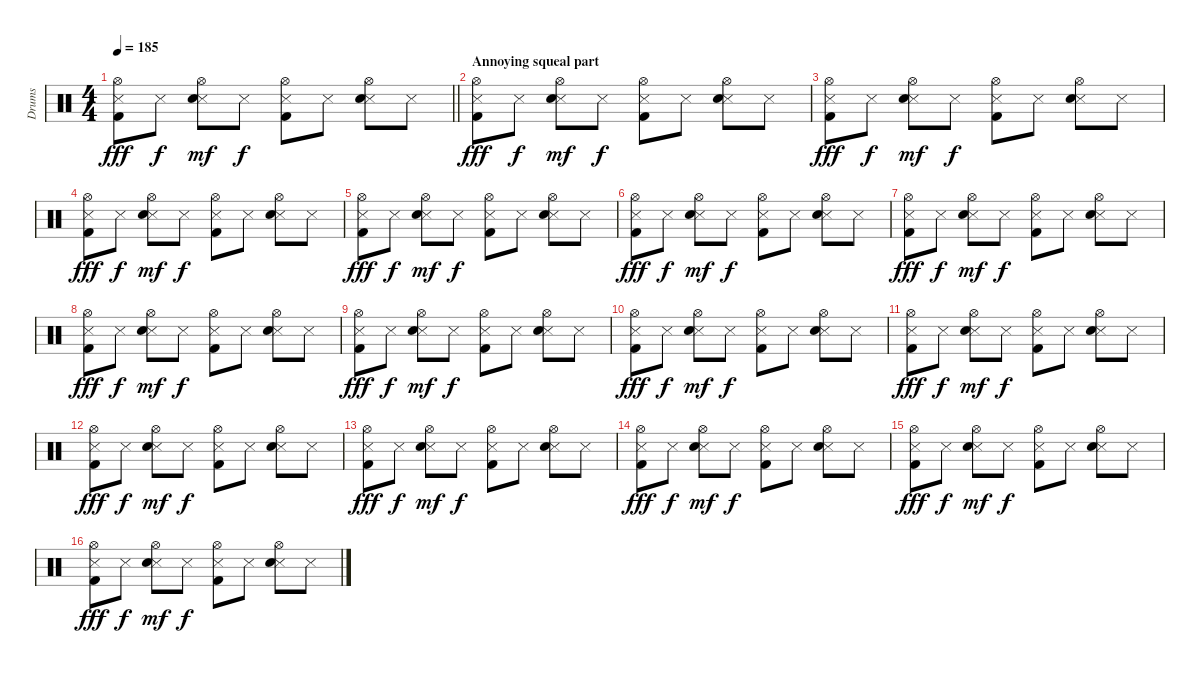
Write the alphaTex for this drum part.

\track ("Drums" "Drums") {instrument percussion}
\staff {score}
\articulation defaults
\ts (4 4)
\tempo 185
\clef neutral
\barLineRight lightlight
\ks c
("Hi-Hat (open)" "Metronome (hit)" "Kick (hit) 2").8{dy fff} "Metronome (hit)".8{dy f} ("Hi-Hat (open)" "Metronome (hit)" "Snare (hit) 2").8{dy mf} "Metronome (hit)".8{dy f} ("Hi-Hat (open)" "Metronome (hit)" "Kick (hit) 2").8 "Metronome (hit)".8 ("Hi-Hat (open)" "Metronome (hit)" "Snare (hit) 2").8 "Metronome (hit)".8 |
\section ("" "Annoying squeal part")
("Hi-Hat (open)" "Metronome (hit)" "Kick (hit) 2").8{dy fff} "Metronome (hit)".8{dy f} ("Hi-Hat (open)" "Metronome (hit)" "Snare (hit) 2").8{dy mf} "Metronome (hit)".8{dy f} ("Hi-Hat (open)" "Metronome (hit)" "Kick (hit) 2").8 "Metronome (hit)".8 ("Hi-Hat (open)" "Metronome (hit)" "Snare (hit) 2").8 "Metronome (hit)".8 |
("Hi-Hat (open)" "Metronome (hit)" "Kick (hit) 2").8{dy fff} "Metronome (hit)".8{dy f} ("Hi-Hat (open)" "Metronome (hit)" "Snare (hit) 2").8{dy mf} "Metronome (hit)".8{dy f} ("Hi-Hat (open)" "Metronome (hit)" "Kick (hit) 2").8 "Metronome (hit)".8 ("Hi-Hat (open)" "Metronome (hit)" "Snare (hit) 2").8 "Metronome (hit)".8 |
("Hi-Hat (open)" "Metronome (hit)" "Kick (hit) 2").8{dy fff} "Metronome (hit)".8{dy f} ("Hi-Hat (open)" "Metronome (hit)" "Snare (hit) 2").8{dy mf} "Metronome (hit)".8{dy f} ("Hi-Hat (open)" "Metronome (hit)" "Kick (hit) 2").8 "Metronome (hit)".8 ("Hi-Hat (open)" "Metronome (hit)" "Snare (hit) 2").8 "Metronome (hit)".8 |
("Hi-Hat (open)" "Metronome (hit)" "Kick (hit) 2").8{dy fff} "Metronome (hit)".8{dy f} ("Hi-Hat (open)" "Metronome (hit)" "Snare (hit) 2").8{dy mf} "Metronome (hit)".8{dy f} ("Hi-Hat (open)" "Metronome (hit)" "Kick (hit) 2").8 "Metronome (hit)".8 ("Hi-Hat (open)" "Metronome (hit)" "Snare (hit) 2").8 "Metronome (hit)".8 |
("Hi-Hat (open)" "Metronome (hit)" "Kick (hit) 2").8{dy fff} "Metronome (hit)".8{dy f} ("Hi-Hat (open)" "Metronome (hit)" "Snare (hit) 2").8{dy mf} "Metronome (hit)".8{dy f} ("Hi-Hat (open)" "Metronome (hit)" "Kick (hit) 2").8 "Metronome (hit)".8 ("Hi-Hat (open)" "Metronome (hit)" "Snare (hit) 2").8 "Metronome (hit)".8 |
("Hi-Hat (open)" "Metronome (hit)" "Kick (hit) 2").8{dy fff} "Metronome (hit)".8{dy f} ("Hi-Hat (open)" "Metronome (hit)" "Snare (hit) 2").8{dy mf} "Metronome (hit)".8{dy f} ("Hi-Hat (open)" "Metronome (hit)" "Kick (hit) 2").8 "Metronome (hit)".8 ("Hi-Hat (open)" "Metronome (hit)" "Snare (hit) 2").8 "Metronome (hit)".8 |
("Hi-Hat (open)" "Metronome (hit)" "Kick (hit) 2").8{dy fff} "Metronome (hit)".8{dy f} ("Hi-Hat (open)" "Metronome (hit)" "Snare (hit) 2").8{dy mf} "Metronome (hit)".8{dy f} ("Hi-Hat (open)" "Metronome (hit)" "Kick (hit) 2").8 "Metronome (hit)".8 ("Hi-Hat (open)" "Metronome (hit)" "Snare (hit) 2").8 "Metronome (hit)".8 |
("Hi-Hat (open)" "Metronome (hit)" "Kick (hit) 2").8{dy fff} "Metronome (hit)".8{dy f} ("Hi-Hat (open)" "Metronome (hit)" "Snare (hit) 2").8{dy mf} "Metronome (hit)".8{dy f} ("Hi-Hat (open)" "Metronome (hit)" "Kick (hit) 2").8 "Metronome (hit)".8 ("Hi-Hat (open)" "Metronome (hit)" "Snare (hit) 2").8 "Metronome (hit)".8 |
("Hi-Hat (open)" "Metronome (hit)" "Kick (hit) 2").8{dy fff} "Metronome (hit)".8{dy f} ("Hi-Hat (open)" "Metronome (hit)" "Snare (hit) 2").8{dy mf} "Metronome (hit)".8{dy f} ("Hi-Hat (open)" "Metronome (hit)" "Kick (hit) 2").8 "Metronome (hit)".8 ("Hi-Hat (open)" "Metronome (hit)" "Snare (hit) 2").8 "Metronome (hit)".8 |
("Hi-Hat (open)" "Metronome (hit)" "Kick (hit) 2").8{dy fff} "Metronome (hit)".8{dy f} ("Hi-Hat (open)" "Metronome (hit)" "Snare (hit) 2").8{dy mf} "Metronome (hit)".8{dy f} ("Hi-Hat (open)" "Metronome (hit)" "Kick (hit) 2").8 "Metronome (hit)".8 ("Hi-Hat (open)" "Metronome (hit)" "Snare (hit) 2").8 "Metronome (hit)".8 |
("Hi-Hat (open)" "Metronome (hit)" "Kick (hit) 2").8{dy fff} "Metronome (hit)".8{dy f} ("Hi-Hat (open)" "Metronome (hit)" "Snare (hit) 2").8{dy mf} "Metronome (hit)".8{dy f} ("Hi-Hat (open)" "Metronome (hit)" "Kick (hit) 2").8 "Metronome (hit)".8 ("Hi-Hat (open)" "Metronome (hit)" "Snare (hit) 2").8 "Metronome (hit)".8 |
("Hi-Hat (open)" "Metronome (hit)" "Kick (hit) 2").8{dy fff} "Metronome (hit)".8{dy f} ("Hi-Hat (open)" "Metronome (hit)" "Snare (hit) 2").8{dy mf} "Metronome (hit)".8{dy f} ("Hi-Hat (open)" "Metronome (hit)" "Kick (hit) 2").8 "Metronome (hit)".8 ("Hi-Hat (open)" "Metronome (hit)" "Snare (hit) 2").8 "Metronome (hit)".8 |
("Hi-Hat (open)" "Metronome (hit)" "Kick (hit) 2").8{dy fff} "Metronome (hit)".8{dy f} ("Hi-Hat (open)" "Metronome (hit)" "Snare (hit) 2").8{dy mf} "Metronome (hit)".8{dy f} ("Hi-Hat (open)" "Metronome (hit)" "Kick (hit) 2").8 "Metronome (hit)".8 ("Hi-Hat (open)" "Metronome (hit)" "Snare (hit) 2").8 "Metronome (hit)".8 |
("Hi-Hat (open)" "Metronome (hit)" "Kick (hit) 2").8{dy fff} "Metronome (hit)".8{dy f} ("Hi-Hat (open)" "Metronome (hit)" "Snare (hit) 2").8{dy mf} "Metronome (hit)".8{dy f} ("Hi-Hat (open)" "Metronome (hit)" "Kick (hit) 2").8 "Metronome (hit)".8 ("Hi-Hat (open)" "Metronome (hit)" "Snare (hit) 2").8 "Metronome (hit)".8 |
("Hi-Hat (open)" "Metronome (hit)" "Kick (hit) 2").8{dy fff} "Metronome (hit)".8{dy f} ("Hi-Hat (open)" "Metronome (hit)" "Snare (hit) 2").8{dy mf} "Metronome (hit)".8{dy f} ("Hi-Hat (open)" "Metronome (hit)" "Kick (hit) 2").8 "Metronome (hit)".8 ("Hi-Hat (open)" "Metronome (hit)" "Snare (hit) 2").8 "Metronome (hit)".8
